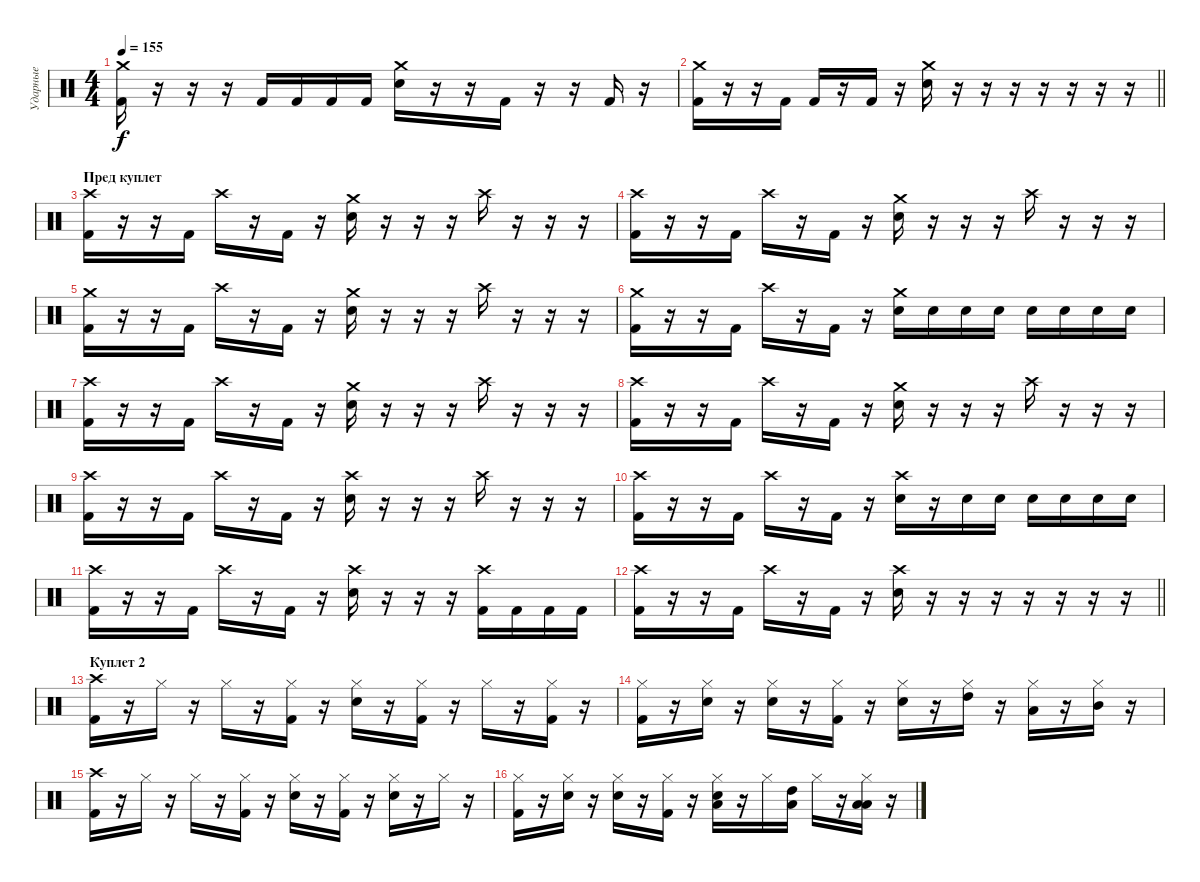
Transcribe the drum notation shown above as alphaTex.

\track ("Ударные" "Ударные") {instrument percussion}
\staff {score}
\articulation defaults
\ts (4 4)
\tempo 155
\clef neutral
\ks c
("Crash medium (hit)" "Kick (hit) 2").16{dy f} r.16 r.16 r.16 "Kick (hit) 2".16 "Kick (hit) 2".16 "Kick (hit) 2".16 "Kick (hit) 2".16 ("Crash medium (hit)" "Snare (hit) 2").16 r.16 r.16 "Kick (hit) 2".16 r.16 r.16 "Kick (hit) 2".16 r.16 |
\barLineRight lightlight
("Crash medium (hit)" "Kick (hit) 2").16 r.16 r.16 "Kick (hit) 2".16 "Kick (hit) 2".16 r.16 "Kick (hit) 2".16 r.16 ("Crash medium (hit)" "Snare (hit) 2").16 r.16 r.16 r.16 r.16 r.16 r.16 r.16 |
\section ("" "Пред куплет")
("Crash high (hit)" "Kick (hit) 2").16 r.16 r.16 "Kick (hit) 2".16 "Crash high (hit)".16 r.16 "Kick (hit) 2".16 r.16 ("Crash medium (hit)" "Snare (hit) 2").16 r.16 r.16 r.16 "Crash high (hit)".16 r.16 r.16 r.16 |
("Crash high (hit)" "Kick (hit) 2").16 r.16 r.16 "Kick (hit) 2".16 "Crash high (hit)".16 r.16 "Kick (hit) 2".16 r.16 ("Crash medium (hit)" "Snare (hit) 2").16 r.16 r.16 r.16 "Crash high (hit)".16 r.16 r.16 r.16 |
("Crash medium (hit)" "Kick (hit) 2").16 r.16 r.16 "Kick (hit) 2".16 "Crash high (hit)".16 r.16 "Kick (hit) 2".16 r.16 ("Crash medium (hit)" "Snare (hit) 2").16 r.16 r.16 r.16 "Crash high (hit)".16 r.16 r.16 r.16 |
("Crash medium (hit)" "Kick (hit) 2").16 r.16 r.16 "Kick (hit) 2".16 "Crash high (hit)".16 r.16 "Kick (hit) 2".16 r.16 ("Crash medium (hit)" "Snare (hit) 2").16 "Snare (hit) 2".16 "Snare (hit) 2".16 "Snare (hit) 2".16 "Snare (hit) 2".16 "Snare (hit) 2".16 "Snare (hit) 2".16 "Snare (hit) 2".16 |
("Crash high (hit)" "Kick (hit) 2").16 r.16 r.16 "Kick (hit) 2".16 "Crash high (hit)".16 r.16 "Kick (hit) 2".16 r.16 ("Crash medium (hit)" "Snare (hit) 2").16 r.16 r.16 r.16 "Crash high (hit)".16 r.16 r.16 r.16 |
("Crash high (hit)" "Kick (hit) 2").16 r.16 r.16 "Kick (hit) 2".16 "Crash high (hit)".16 r.16 "Kick (hit) 2".16 r.16 ("Crash medium (hit)" "Snare (hit) 2").16 r.16 r.16 r.16 "Crash high (hit)".16 r.16 r.16 r.16 |
("Crash high (hit)" "Kick (hit) 2").16 r.16 r.16 "Kick (hit) 2".16 "Crash high (hit)".16 r.16 "Kick (hit) 2".16 r.16 ("Crash high (hit)" "Snare (hit) 2").16 r.16 r.16 r.16 "Crash high (hit)".16 r.16 r.16 r.16 |
("Crash high (hit)" "Kick (hit) 2").16 r.16 r.16 "Kick (hit) 2".16 "Crash high (hit)".16 r.16 "Kick (hit) 2".16 r.16 ("Crash high (hit)" "Snare (hit) 2").16 r.16 "Snare (hit) 2".16 "Snare (hit) 2".16 "Snare (hit) 2".16 "Snare (hit) 2".16 "Snare (hit) 2".16 "Snare (hit) 2".16 |
("Crash high (hit)" "Kick (hit) 2").16 r.16 r.16 "Kick (hit) 2".16 "Crash high (hit)".16 r.16 "Kick (hit) 2".16 r.16 ("Crash high (hit)" "Snare (hit) 2").16 r.16 r.16 r.16 ("Crash high (hit)" "Kick (hit) 2").16 "Kick (hit) 2".16 "Kick (hit) 2".16 "Kick (hit) 2".16 |
\barLineRight lightlight
("Crash high (hit)" "Kick (hit) 2").16 r.16 r.16 "Kick (hit) 2".16 "Crash high (hit)".16 r.16 "Kick (hit) 2".16 r.16 ("Crash high (hit)" "Snare (hit) 2").16 r.16 r.16 r.16 r.16 r.16 r.16 r.16 |
\section ("" "Куплет 2")
("Crash high (hit)" "Kick (hit) 2").16 r.16 "Hi-Hat (closed)".16 r.16 "Hi-Hat (closed)".16 r.16 ("Hi-Hat (closed)" "Kick (hit) 2").16 r.16 ("Hi-Hat (closed)" "Snare (hit) 2").16 r.16 ("Hi-Hat (closed)" "Kick (hit) 2").16 r.16 "Hi-Hat (closed)".16 r.16 ("Hi-Hat (closed)" "Kick (hit) 2").16 r.16 |
("Hi-Hat (closed)" "Kick (hit) 2").16 r.16 ("Hi-Hat (closed)" "Snare (hit) 2").16 r.16 ("Hi-Hat (closed)" "Snare (hit) 2").16 r.16 ("Hi-Hat (closed)" "Kick (hit) 2").16 r.16 ("Hi-Hat (closed)" "Snare (hit) 2").16 r.16 ("Hi-Hat (closed)" "High Tom (hit)").16 r.16 ("Hi-Hat (closed)" "Low Tom (hit)").16 r.16 ("Hi-Hat (closed)" "Mid Tom (hit)").16 r.16 |
("Crash high (hit)" "Kick (hit) 2").16 r.16 "Hi-Hat (closed)".16 r.16 "Hi-Hat (closed)".16 r.16 ("Hi-Hat (closed)" "Kick (hit) 2").16 r.16 ("Hi-Hat (closed)" "Snare (hit) 2").16 r.16 ("Hi-Hat (closed)" "Kick (hit) 2").16 r.16 ("Hi-Hat (closed)" "Snare (hit) 2").16 r.16 "Hi-Hat (closed)".16 r.16 |
("Hi-Hat (closed)" "Kick (hit) 2").16 r.16 ("Hi-Hat (closed)" "Snare (hit) 2").16 r.16 ("Hi-Hat (closed)" "Snare (hit) 2").16 r.16 ("Hi-Hat (closed)" "Kick (hit) 2").16 r.16 ("Hi-Hat (closed)" "Low Tom (hit)" "Snare (hit) 2").16 r.16 "Hi-Hat (closed)".16 ("Low Tom (hit)" "High Tom (hit)").16 "Hi-Hat (closed)".16 r.16 ("Hi-Hat (closed)" "Low Tom (hit)" "Low Tom (hit)").16 r.16
